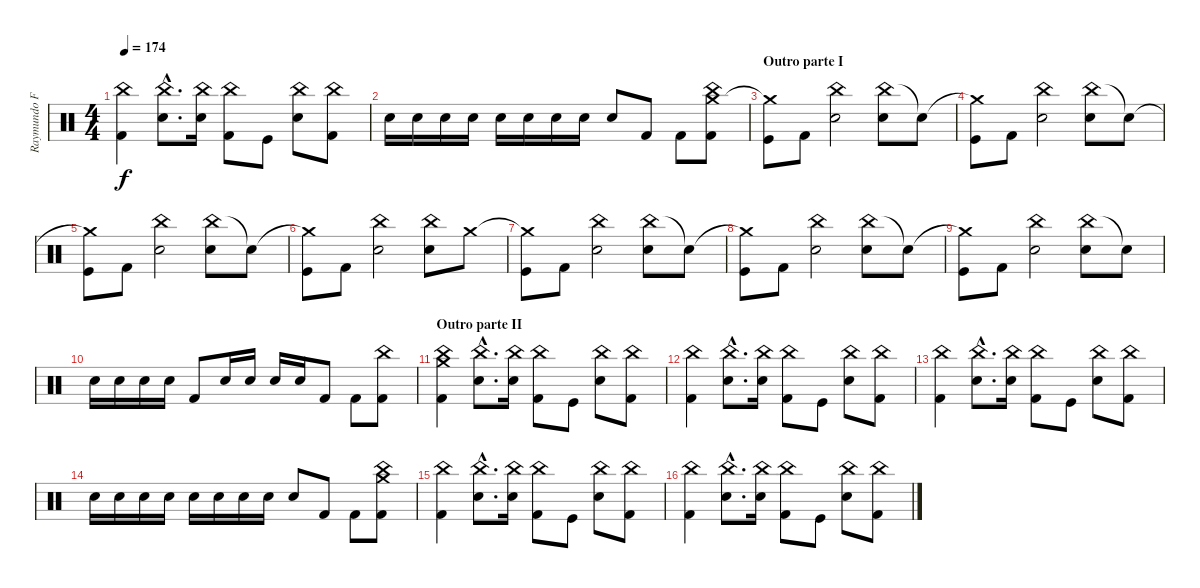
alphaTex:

\track ("Raymundo Fajardo (Batería)" "Raymundo F") {instrument percussion}
\staff {score}
\articulation defaults
\ts (4 4)
\tempo 174
\clef neutral
\ks c
("Kick (hit) 2" "China (hit)").4{dy f} ("Snare (hit) 2"{hac} "China (hit)"{hac}).8{d} ("Snare (hit) 2" "China (hit)").16 ("Kick (hit) 2" "China (hit)").8 "Kick (hit)".8 ("China (hit)" "Snare (hit) 2").8 ("Kick (hit) 2" "China (hit)").8 |
"Snare (hit) 2".16 "Snare (hit) 2".16 "Snare (hit) 2".16 "Snare (hit) 2".16 "Snare (hit) 2".16 "Snare (hit) 2".16 "Snare (hit) 2".16 "Snare (hit) 2".16 "Snare (hit) 2".8 "Kick (hit) 2".8 "Kick (hit) 2".8 ("Crash medium (hit)" "Kick (hit) 2" "China (hit)").8 |
\section ("" "Outro parte I")
("Crash medium (hit)"{t} "Kick (hit)").8 "Kick (hit) 2".8 ("China (hit)" "Snare (hit) 2").2 ("China (hit)" "Snare (hit) 2").8 "Snare (hit)"{t}.8 |
("Crash medium (hit)"{t} "Kick (hit)").8 "Kick (hit) 2".8 ("China (hit)" "Snare (hit) 2").2 ("China (hit)" "Snare (hit) 2").8 "Snare (hit)"{t}.8 |
("Crash medium (hit)"{t} "Kick (hit)").8 "Kick (hit) 2".8 ("China (hit)" "Snare (hit) 2").2 ("China (hit)" "Snare (hit) 2").8 "Snare (hit)"{t}.8 |
("Crash medium (hit)"{t} "Kick (hit)").8 "Kick (hit) 2".8 ("China (hit)" "Snare (hit) 2").2 ("China (hit)" "Snare (hit) 2").8 "Crash medium (hit)".8 |
("Crash medium (hit)"{t} "Kick (hit)").8 "Kick (hit) 2".8 ("China (hit)" "Snare (hit) 2").2 ("China (hit)" "Snare (hit) 2").8 "Snare (hit)"{t}.8 |
("Crash medium (hit)"{t} "Kick (hit)").8 "Kick (hit) 2".8 ("China (hit)" "Snare (hit) 2").2 ("China (hit)" "Snare (hit) 2").8 "Snare (hit)"{t}.8 |
("Crash medium (hit)"{t} "Kick (hit)").8 "Kick (hit) 2".8 ("China (hit)" "Snare (hit) 2").2 ("China (hit)" "Snare (hit) 2").8 "Snare (hit)"{t}.8 |
"Snare (hit) 2".16 "Snare (hit) 2".16 "Snare (hit) 2".16 "Snare (hit) 2".16 "Kick (hit) 2".8 "Snare (hit) 2".16 "Snare (hit) 2".16 "Snare (hit) 2".16 "Snare (hit) 2".16 "Kick (hit) 2".8 "Kick (hit) 2".8 ("Kick (hit) 2" "China (hit)").8 |
\section ("" "Outro parte II")
("Crash medium (hit)" "Kick (hit) 2" "China (hit)").4 ("Snare (hit) 2"{hac} "China (hit)"{hac}).8{d} ("Snare (hit) 2" "China (hit)").16 ("Kick (hit) 2" "China (hit)").8 "Kick (hit)".8 ("China (hit)" "Snare (hit) 2").8 ("Kick (hit) 2" "China (hit)").8 |
("Kick (hit) 2" "China (hit)").4 ("Snare (hit) 2"{hac} "China (hit)"{hac}).8{d} ("Snare (hit) 2" "China (hit)").16 ("Kick (hit) 2" "China (hit)").8 "Kick (hit)".8 ("China (hit)" "Snare (hit) 2").8 ("Kick (hit) 2" "China (hit)").8 |
("Kick (hit) 2" "China (hit)").4 ("Snare (hit) 2"{hac} "China (hit)"{hac}).8{d} ("Snare (hit) 2" "China (hit)").16 ("Kick (hit) 2" "China (hit)").8 "Kick (hit)".8 ("China (hit)" "Snare (hit) 2").8 ("Kick (hit) 2" "China (hit)").8 |
"Snare (hit) 2".16 "Snare (hit) 2".16 "Snare (hit) 2".16 "Snare (hit) 2".16 "Snare (hit) 2".16 "Snare (hit) 2".16 "Snare (hit) 2".16 "Snare (hit) 2".16 "Snare (hit) 2".8 "Kick (hit) 2".8 "Kick (hit) 2".8 ("Crash medium (hit)" "Kick (hit) 2" "China (hit)").8 |
("Kick (hit) 2" "China (hit)").4 ("Snare (hit) 2"{hac} "China (hit)"{hac}).8{d} ("Snare (hit) 2" "China (hit)").16 ("Kick (hit) 2" "China (hit)").8 "Kick (hit)".8 ("China (hit)" "Snare (hit) 2").8 ("Kick (hit) 2" "China (hit)").8 |
("Kick (hit) 2" "China (hit)").4 ("Snare (hit) 2"{hac} "China (hit)"{hac}).8{d} ("Snare (hit) 2" "China (hit)").16 ("Kick (hit) 2" "China (hit)").8 "Kick (hit)".8 ("China (hit)" "Snare (hit) 2").8 ("Kick (hit) 2" "China (hit)").8
